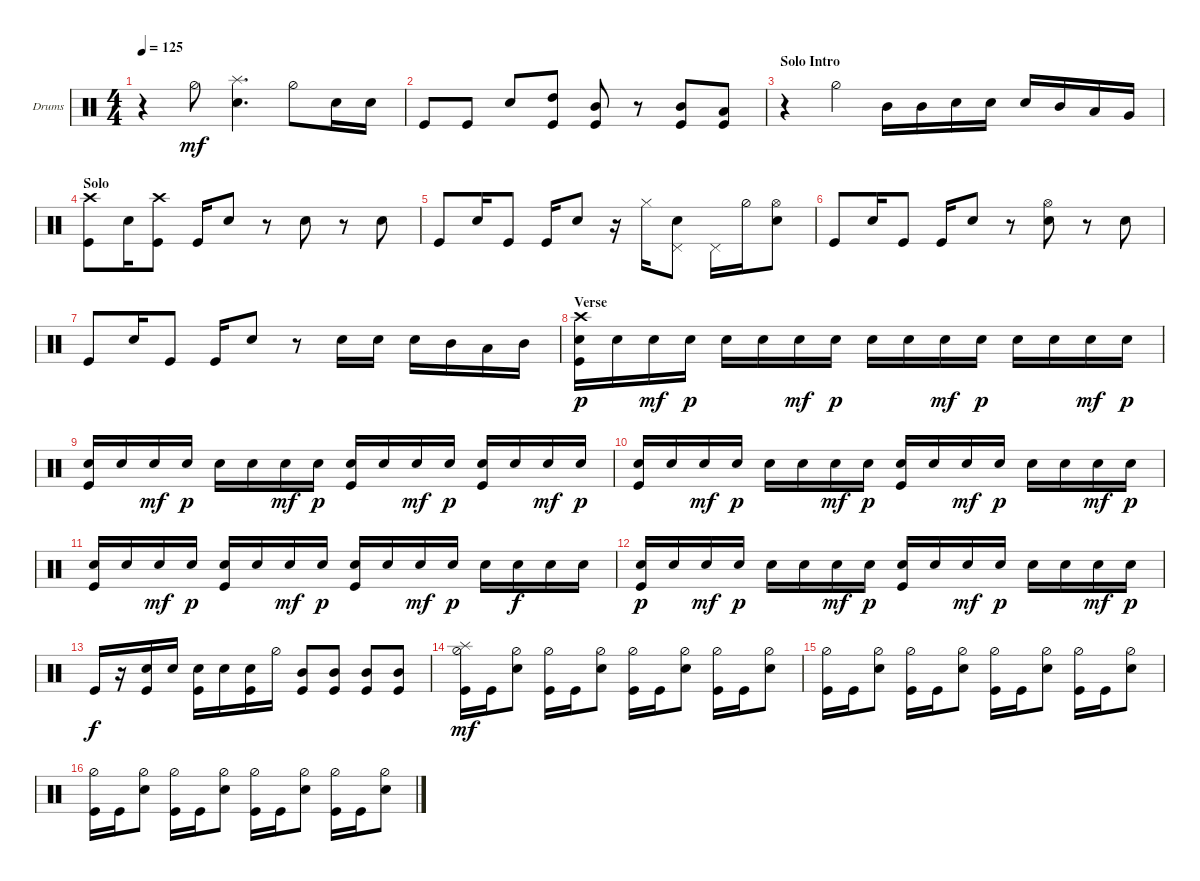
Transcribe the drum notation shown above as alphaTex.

\defaultSystemsLayout 4
\bracketExtendMode groupsimilarinstruments
\firstSystemTrackNameOrientation horizontal
\otherSystemsTrackNameOrientation horizontal
\track ("Drumkit" "Drums") {instrument percussion}
\staff {score}
\articulation defaults
\ts (4 4)
\tempo 125
\clef neutral
\ks c
r.4{dy mf} "Hi-Hat (half)".8 ("Snare (hit) 2" "Splash (hit)").4{d} "Hi-Hat (half)".8 "Snare (hit) 2".16 "Snare (hit) 2".16 |
"Kick (hit)".8 "Kick (hit)".8 "Snare (hit) 2".8 ("Kick (hit)" "High Tom (hit)").8 ("Kick (hit)" "Mid Tom (hit)").8 r.8 ("Kick (hit)" "Mid Tom (hit)").8 ("Kick (hit)" "Low Tom (hit)").8 |
\section ("" "Solo Intro")
r.4 "Hi-Hat (half)".4 "Mid Tom (hit)".16 "Mid Tom (hit)".16 "Snare (hit) 2".16 "Snare (hit) 2".16 "Snare (hit) 2".16 "Mid Tom (hit)".16 "Low Tom (hit)".16 "Very Low Tom (hit)".16 |
\section ("" "Solo")
("Kick (hit)" "Crash high (hit)").8 "Snare (hit) 2".16 ("Kick (hit)" "Crash high (hit)").8 "Kick (hit)".16 "Snare (hit) 2".8 r.8 "Snare (hit) 2".8 r.8 "Snare (hit) 2".8 |
"Kick (hit)".8 "Snare (hit) 2".16 "Kick (hit)".8 "Kick (hit)".16 "Snare (hit) 2".8 r.16 "Hi-Hat (closed)".16 ("Snare (hit) 2" "Pedal Hi-Hat (hit)").8 "Pedal Hi-Hat (hit)".16 "Hi-Hat (half)".16 ("Snare (hit) 2" "Hi-Hat (open)").8 |
"Kick (hit)".8 "Snare (hit) 2".16 "Kick (hit)".8 "Kick (hit)".16 "Snare (hit) 2".8 r.8 ("Snare (hit) 2" "Hi-Hat (open)").8 r.8 "Snare (hit) 2".8 |
"Kick (hit)".8 "Snare (hit) 2".16 "Kick (hit)".8 "Kick (hit)".16 "Snare (hit) 2".8 r.8 "Snare (hit) 2".16 "Snare (hit) 2".16 "Snare (hit) 2".16 "Mid Tom (hit)".16 "Low Tom (hit)".16 "Mid Tom (hit)".16 |
\section ("" "Verse")
("Snare (hit) 2" "Kick (hit)" "Crash high (hit)").16{dy p} "Snare (hit) 2".16 "Snare (hit) 2".16{dy mf} "Snare (hit) 2".16{dy p} "Snare (hit) 2".16 "Snare (hit) 2".16 "Snare (hit) 2".16{dy mf} "Snare (hit) 2".16{dy p} "Snare (hit) 2".16 "Snare (hit) 2".16 "Snare (hit) 2".16{dy mf} "Snare (hit) 2".16{dy p} "Snare (hit) 2".16 "Snare (hit) 2".16 "Snare (hit) 2".16{dy mf} "Snare (hit) 2".16{dy p} |
("Snare (hit) 2" "Kick (hit)").16 "Snare (hit) 2".16 "Snare (hit) 2".16{dy mf} "Snare (hit) 2".16{dy p} "Snare (hit) 2".16 "Snare (hit) 2".16 "Snare (hit) 2".16{dy mf} "Snare (hit) 2".16{dy p} ("Snare (hit) 2" "Kick (hit)").16 "Snare (hit) 2".16 "Snare (hit) 2".16{dy mf} "Snare (hit) 2".16{dy p} ("Snare (hit) 2" "Kick (hit)").16 "Snare (hit) 2".16 "Snare (hit) 2".16{dy mf} "Snare (hit) 2".16{dy p} |
("Snare (hit) 2" "Kick (hit)").16 "Snare (hit) 2".16 "Snare (hit) 2".16{dy mf} "Snare (hit) 2".16{dy p} "Snare (hit) 2".16 "Snare (hit) 2".16 "Snare (hit) 2".16{dy mf} "Snare (hit) 2".16{dy p} ("Snare (hit) 2" "Kick (hit)").16 "Snare (hit) 2".16 "Snare (hit) 2".16{dy mf} "Snare (hit) 2".16{dy p} "Snare (hit) 2".16 "Snare (hit) 2".16 "Snare (hit) 2".16{dy mf} "Snare (hit) 2".16{dy p} |
("Snare (hit) 2" "Kick (hit)").16 "Snare (hit) 2".16 "Snare (hit) 2".16{dy mf} "Snare (hit) 2".16{dy p} ("Snare (hit) 2" "Kick (hit)").16 "Snare (hit) 2".16 "Snare (hit) 2".16{dy mf} "Snare (hit) 2".16{dy p} ("Snare (hit) 2" "Kick (hit)").16 "Snare (hit) 2".16 "Snare (hit) 2".16{dy mf} "Snare (hit) 2".16{dy p} "Snare (hit) 2".16 "Snare (hit) 2".16{dy f} "Snare (hit) 2".16 "Snare (hit) 2".16 |
("Snare (hit) 2" "Kick (hit)").16{dy p} "Snare (hit) 2".16 "Snare (hit) 2".16{dy mf} "Snare (hit) 2".16{dy p} "Snare (hit) 2".16 "Snare (hit) 2".16 "Snare (hit) 2".16{dy mf} "Snare (hit) 2".16{dy p} ("Snare (hit) 2" "Kick (hit)").16 "Snare (hit) 2".16 "Snare (hit) 2".16{dy mf} "Snare (hit) 2".16{dy p} "Snare (hit) 2".16 "Snare (hit) 2".16 "Snare (hit) 2".16{dy mf} "Snare (hit) 2".16{dy p} |
"Kick (hit)".16{dy f} r.16 ("Kick (hit)" "Snare (hit) 2").16 "Snare (hit) 2".16 ("Kick (hit)" "Snare (hit) 2").16 "Snare (hit) 2".16 ("Kick (hit)" "Snare (hit) 2").16 "Hi-Hat (half)".16 ("Kick (hit)" "Mid Tom (hit)").8 ("Kick (hit)" "Mid Tom (hit)").8 ("Kick (hit)" "Mid Tom (hit)").8 ("Kick (hit)" "Mid Tom (hit)").8 |
("Hi-Hat (half)" "Kick (hit)" "Splash (hit)").16{dy mf} "Kick (hit)".16 ("Hi-Hat (half)" "Snare (hit) 2").8 ("Hi-Hat (half)" "Kick (hit)").16 "Kick (hit)".16 ("Hi-Hat (half)" "Snare (hit) 2").8 ("Hi-Hat (half)" "Kick (hit)").16 "Kick (hit)".16 ("Hi-Hat (half)" "Snare (hit) 2").8 ("Hi-Hat (half)" "Kick (hit)").16 "Kick (hit)".16 ("Hi-Hat (half)" "Snare (hit) 2").8 |
("Hi-Hat (half)" "Kick (hit)").16 "Kick (hit)".16 ("Hi-Hat (half)" "Snare (hit) 2").8 ("Hi-Hat (half)" "Kick (hit)").16 "Kick (hit)".16 ("Hi-Hat (half)" "Snare (hit) 2").8 ("Hi-Hat (half)" "Kick (hit)").16 "Kick (hit)".16 ("Hi-Hat (half)" "Snare (hit) 2").8 ("Hi-Hat (half)" "Kick (hit)").16 "Kick (hit)".16 ("Hi-Hat (half)" "Snare (hit) 2").8 |
("Hi-Hat (half)" "Kick (hit)").16 "Kick (hit)".16 ("Hi-Hat (half)" "Snare (hit) 2").8 ("Hi-Hat (half)" "Kick (hit)").16 "Kick (hit)".16 ("Hi-Hat (half)" "Snare (hit) 2").8 ("Hi-Hat (half)" "Kick (hit)").16 "Kick (hit)".16 ("Hi-Hat (half)" "Snare (hit) 2").8 ("Hi-Hat (half)" "Kick (hit)").16 "Kick (hit)".16 ("Hi-Hat (half)" "Snare (hit) 2").8
